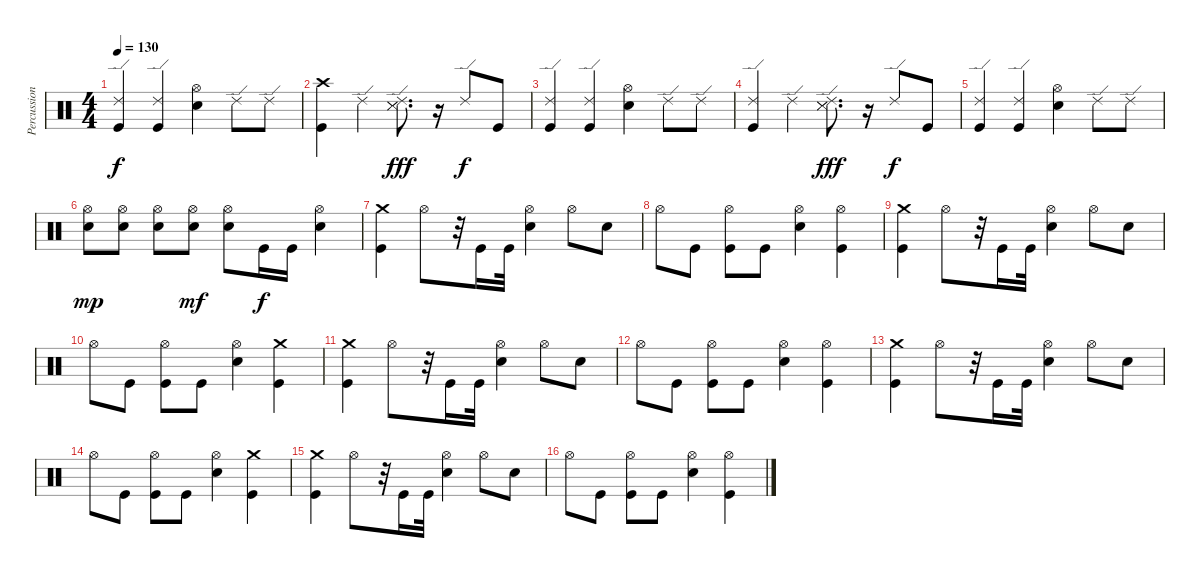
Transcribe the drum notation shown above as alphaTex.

\track ("Percussion" "Percussion") {instrument percussion}
\staff {score}
\articulation defaults
\ts (4 4)
\tempo 130
\clef neutral
\ks c
("Ride (edge) 2" "Kick (hit)").4{dy f} ("Ride (edge) 2" "Kick (hit)").4 ("Hi-Hat (open)" "Snare (hit) 2").4 "Ride (edge) 2".8 "Ride (edge) 2".8 |
("Crash high (hit)" "Kick (hit)").4 "Ride (edge) 2".4 ("Ride (edge) 2" "Snare (side stick) 3" "Snare (side stick) 3").8{d dy fff} r.16 "Ride (edge) 2".8{dy f} "Kick (hit)".8 |
("Ride (edge) 2" "Kick (hit)").4 ("Ride (edge) 2" "Kick (hit)").4 ("Hi-Hat (open)" "Snare (hit) 2").4 "Ride (edge) 2".8 "Ride (edge) 2".8 |
("Ride (edge) 2" "Kick (hit)").4 "Ride (edge) 2".4 ("Ride (edge) 2" "Snare (side stick) 3" "Snare (side stick) 3").8{d dy fff} r.16 "Ride (edge) 2".8{dy f} "Kick (hit)".8 |
("Ride (edge) 2" "Kick (hit)").4 ("Ride (edge) 2" "Kick (hit)").4 ("Hi-Hat (open)" "Snare (hit) 2").4 "Ride (edge) 2".8 "Ride (edge) 2".8 |
("Hi-Hat (open)" "Snare (hit) 2").8{dy mp} ("Hi-Hat (open)" "Snare (hit) 2").8 ("Hi-Hat (open)" "Snare (hit) 2").8 ("Hi-Hat (open)" "Snare (hit) 2").8{dy mf} ("Hi-Hat (open)" "Snare (hit) 2").8 "Kick (hit)".16{dy f} "Kick (hit)".16 ("Hi-Hat (open)" "Snare (hit) 2").4 |
("Crash medium (hit)" "Kick (hit)").4 "Hi-Hat (open)".8 r.32 "Kick (hit)".16 "Kick (hit)".32 ("Hi-Hat (open)" "Snare (hit) 2").4 "Hi-Hat (open)".8 "Snare (hit) 2".8 |
"Hi-Hat (open)".8 "Kick (hit)".8 ("Hi-Hat (open)" "Kick (hit)").8 "Kick (hit)".8 ("Hi-Hat (open)" "Snare (hit) 2").4 ("Hi-Hat (open)" "Kick (hit)").4 |
("Crash medium (hit)" "Kick (hit)").4 "Hi-Hat (open)".8 r.32 "Kick (hit)".16 "Kick (hit)".32 ("Hi-Hat (open)" "Snare (hit) 2").4 "Hi-Hat (open)".8 "Snare (hit) 2".8 |
"Hi-Hat (open)".8 "Kick (hit)".8 ("Hi-Hat (open)" "Kick (hit)").8 "Kick (hit)".8 ("Hi-Hat (open)" "Snare (hit) 2").4 ("Crash medium (hit)" "Kick (hit)").4 |
("Crash medium (hit)" "Kick (hit)").4 "Hi-Hat (open)".8 r.32 "Kick (hit)".16 "Kick (hit)".32 ("Hi-Hat (open)" "Snare (hit) 2").4 "Hi-Hat (open)".8 "Snare (hit) 2".8 |
"Hi-Hat (open)".8 "Kick (hit)".8 ("Hi-Hat (open)" "Kick (hit)").8 "Kick (hit)".8 ("Hi-Hat (open)" "Snare (hit) 2").4 ("Hi-Hat (open)" "Kick (hit)").4 |
("Crash medium (hit)" "Kick (hit)").4 "Hi-Hat (open)".8 r.32 "Kick (hit)".16 "Kick (hit)".32 ("Hi-Hat (open)" "Snare (hit) 2").4 "Hi-Hat (open)".8 "Snare (hit) 2".8 |
"Hi-Hat (open)".8 "Kick (hit)".8 ("Hi-Hat (open)" "Kick (hit)").8 "Kick (hit)".8 ("Hi-Hat (open)" "Snare (hit) 2").4 ("Crash medium (hit)" "Kick (hit)").4 |
("Crash medium (hit)" "Kick (hit)").4 "Hi-Hat (open)".8 r.32 "Kick (hit)".16 "Kick (hit)".32 ("Hi-Hat (open)" "Snare (hit) 2").4 "Hi-Hat (open)".8 "Snare (hit) 2".8 |
"Hi-Hat (open)".8 "Kick (hit)".8 ("Hi-Hat (open)" "Kick (hit)").8 "Kick (hit)".8 ("Hi-Hat (open)" "Snare (hit) 2").4 ("Hi-Hat (open)" "Kick (hit)").4
